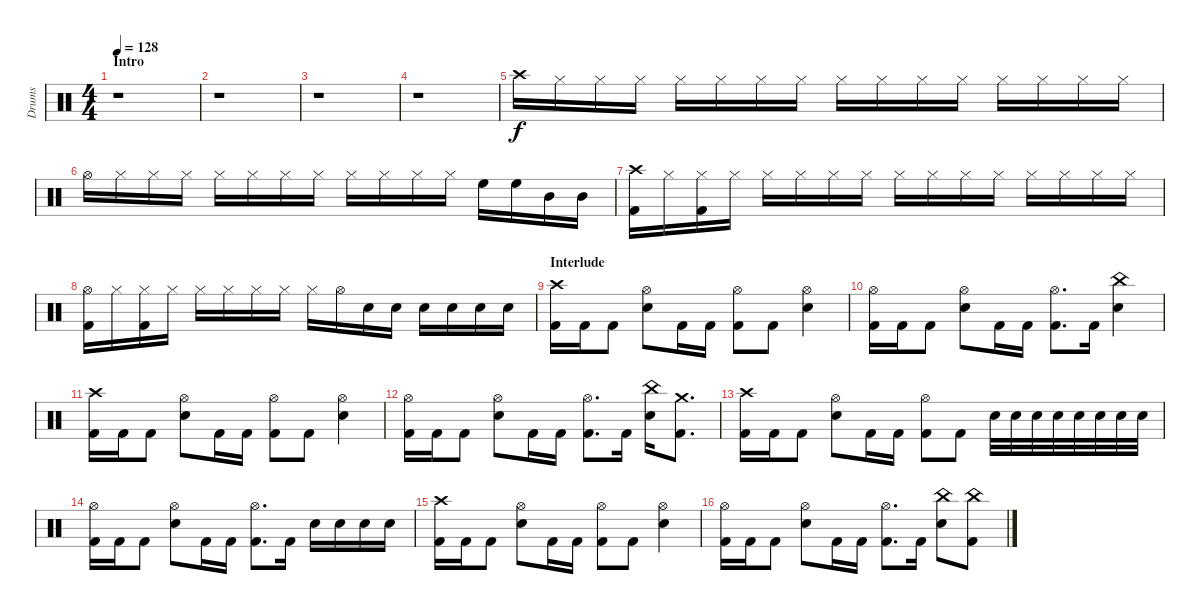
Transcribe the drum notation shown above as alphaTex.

\track ("Drums" "Drums") {instrument percussion}
\staff {score}
\articulation defaults
\ts (4 4)
\section ("" "Intro")
\tempo 128
\clef neutral
\ks c
r.1{dy f} |
r.1 |
r.1 |
r.1 |
"Crash high (hit)".16 "Hi-Hat (closed)".16 "Hi-Hat (closed)".16 "Hi-Hat (closed)".16 "Hi-Hat (closed)".16 "Hi-Hat (closed)".16 "Hi-Hat (closed)".16 "Hi-Hat (closed)".16 "Hi-Hat (closed)".16 "Hi-Hat (closed)".16 "Hi-Hat (closed)".16 "Hi-Hat (closed)".16 "Hi-Hat (closed)".16 "Hi-Hat (closed)".16 "Hi-Hat (closed)".16 "Hi-Hat (closed)".16 |
"Hi-Hat (open)".16 "Hi-Hat (closed)".16 "Hi-Hat (closed)".16 "Hi-Hat (closed)".16 "Hi-Hat (closed)".16 "Hi-Hat (closed)".16 "Hi-Hat (closed)".16 "Hi-Hat (closed)".16 "Hi-Hat (closed)".16 "Hi-Hat (closed)".16 "Hi-Hat (closed)".16 "Hi-Hat (closed)".16 "High Floor Tom (hit)".16 "High Floor Tom (hit)".16 "Mid Tom (hit)".16 "Mid Tom (hit)".16 |
("Crash high (hit)" "Kick (hit) 2").16 "Hi-Hat (closed)".16 ("Hi-Hat (closed)" "Kick (hit) 2").16 "Hi-Hat (closed)".16 "Hi-Hat (closed)".16 "Hi-Hat (closed)".16 "Hi-Hat (closed)".16 "Hi-Hat (closed)".16 "Hi-Hat (closed)".16 "Hi-Hat (closed)".16 "Hi-Hat (closed)".16 "Hi-Hat (closed)".16 "Hi-Hat (closed)".16 "Hi-Hat (closed)".16 "Hi-Hat (closed)".16 "Hi-Hat (closed)".16 |
("Hi-Hat (open)" "Kick (hit) 2").16 "Hi-Hat (closed)".16 ("Hi-Hat (closed)" "Kick (hit) 2").16 "Hi-Hat (closed)".16 "Hi-Hat (closed)".16 "Hi-Hat (closed)".16 "Hi-Hat (closed)".16 "Hi-Hat (closed)".16 "Hi-Hat (closed)".16 "Hi-Hat (open)".16 "Snare (hit) 2".16 "Snare (hit) 2".16 "Snare (hit) 2".16 "Snare (hit) 2".16 "Snare (hit) 2".16 "Snare (hit) 2".16 |
\section ("" "Interlude")
("Crash high (hit)" "Kick (hit) 2").16 "Kick (hit) 2".16 "Kick (hit) 2".8 ("Hi-Hat (open)" "Snare (hit) 2").8 "Kick (hit) 2".16 "Kick (hit) 2".16 ("Hi-Hat (open)" "Kick (hit) 2").8 "Kick (hit) 2".8 ("Hi-Hat (open)" "Snare (hit) 2").4 |
("Hi-Hat (open)" "Kick (hit) 2").16 "Kick (hit) 2".16 "Kick (hit) 2".8 ("Hi-Hat (open)" "Snare (hit) 2").8 "Kick (hit) 2".16 "Kick (hit) 2".16 ("Hi-Hat (open)" "Kick (hit) 2").8{d} "Kick (hit) 2".16 ("China (hit)" "Snare (hit) 2").4 |
("Crash high (hit)" "Kick (hit) 2").16 "Kick (hit) 2".16 "Kick (hit) 2".8 ("Hi-Hat (open)" "Snare (hit) 2").8 "Kick (hit) 2".16 "Kick (hit) 2".16 ("Hi-Hat (open)" "Kick (hit) 2").8 "Kick (hit) 2".8 ("Hi-Hat (open)" "Snare (hit) 2").4 |
("Hi-Hat (open)" "Kick (hit) 2").16 "Kick (hit) 2".16 "Kick (hit) 2".8 ("Hi-Hat (open)" "Snare (hit) 2").8 "Kick (hit) 2".16 "Kick (hit) 2".16 ("Hi-Hat (open)" "Kick (hit) 2").8{d} "Kick (hit) 2".16 ("China (hit)" "Snare (hit) 2").16 ("Crash medium (hit)" "Kick (hit) 2").8{d} |
("Crash high (hit)" "Kick (hit) 2").16 "Kick (hit) 2".16 "Kick (hit) 2".8 ("Hi-Hat (open)" "Snare (hit) 2").8 "Kick (hit) 2".16 "Kick (hit) 2".16 ("Hi-Hat (open)" "Kick (hit) 2").8 "Kick (hit) 2".8 "Snare (hit) 2".32 "Snare (hit) 2".32 "Snare (hit) 2".32 "Snare (hit) 2".32 "Snare (hit) 2".32 "Snare (hit) 2".32 "Snare (hit) 2".32 "Snare (hit) 2".32 |
("Hi-Hat (open)" "Kick (hit) 2").16 "Kick (hit) 2".16 "Kick (hit) 2".8 ("Hi-Hat (open)" "Snare (hit) 2").8 "Kick (hit) 2".16 "Kick (hit) 2".16 ("Hi-Hat (open)" "Kick (hit) 2").8{d} "Kick (hit) 2".16 "Snare (hit) 2".16 "Snare (hit) 2".16 "Snare (hit) 2".16 "Snare (hit) 2".16 |
("Crash high (hit)" "Kick (hit) 2").16 "Kick (hit) 2".16 "Kick (hit) 2".8 ("Hi-Hat (open)" "Snare (hit) 2").8 "Kick (hit) 2".16 "Kick (hit) 2".16 ("Hi-Hat (open)" "Kick (hit) 2").8 "Kick (hit) 2".8 ("Hi-Hat (open)" "Snare (hit) 2").4 |
("Hi-Hat (open)" "Kick (hit) 2").16 "Kick (hit) 2".16 "Kick (hit) 2".8 ("Hi-Hat (open)" "Snare (hit) 2").8 "Kick (hit) 2".16 "Kick (hit) 2".16 ("Hi-Hat (open)" "Kick (hit) 2").8{d} "Kick (hit) 2".16 ("China (hit)" "Snare (hit) 2").8 ("China (hit)" "Kick (hit) 2").8
